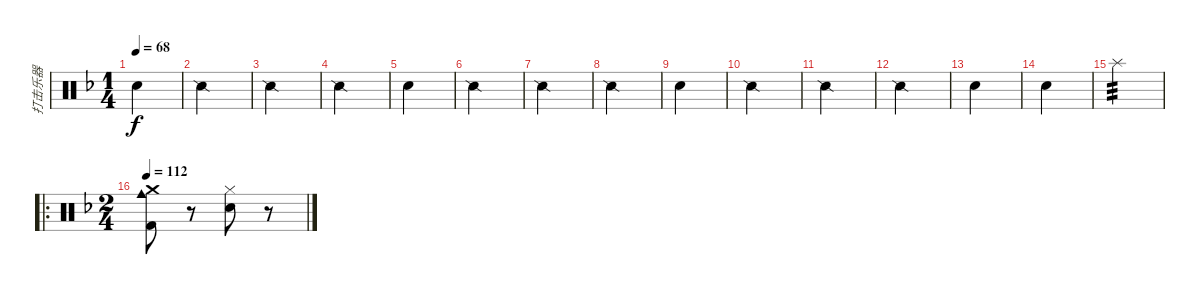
\track ("打击乐器" "打击乐器") {instrument percussion}
\staff {score}
\articulation defaults
\ts (1 4)
\tempo 68
\clef neutral
\ks f "Metronome (bell)".4{dy f}
|
"Snare (side stick) 2".4 |
"Snare (side stick) 2".4 |
"Snare (side stick) 2".4 |
"Metronome (bell)".4 |
"Snare (side stick) 2".4 |
"Snare (side stick) 2".4 |
"Snare (side stick) 2".4 |
"Metronome (bell)".4 |
"Snare (side stick) 2".4 |
"Snare (side stick) 2".4 |
"Snare (side stick) 2".4 |
"Metronome (bell)".4 |
"Metronome (bell)".4 |
"Splash (hit)".4{tp 3} |
\ro
\ts (2 4)
\tempo 112
("Crash medium (hit)" "Cowbell medium (hit)" "Kick (hit) 2").8 r.8 ("Hi-Hat (closed)" "Electric Snare (hit)").8 r.8
